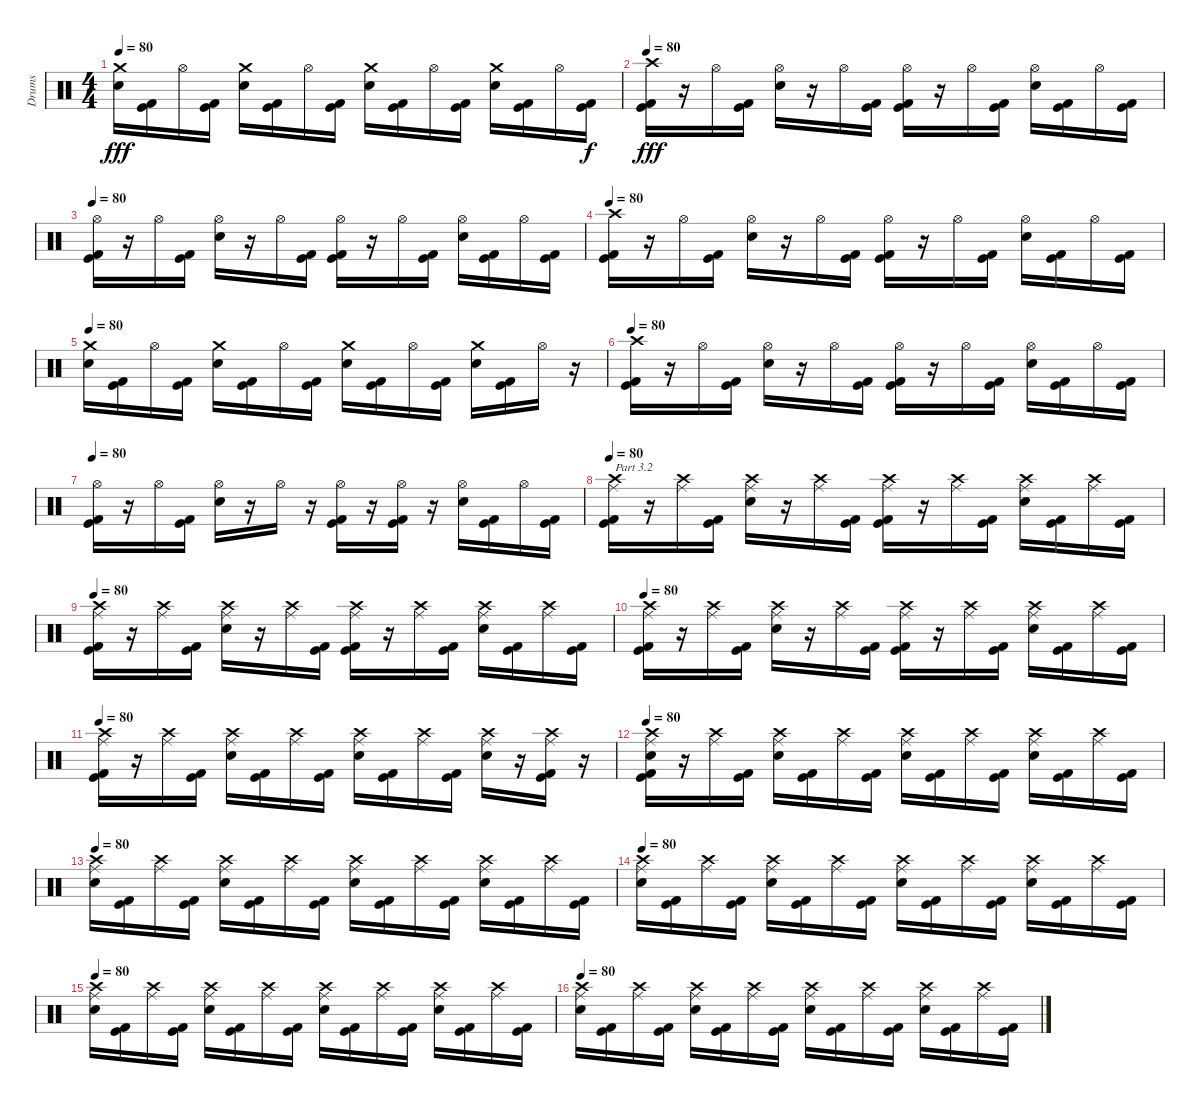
\track ("Drums" "Drums") {instrument percussion}
\staff {score}
\articulation defaults
\ts (4 4)
\tempo 80
\clef neutral
\ks c
("Electric Snare (hit)" "Crash medium (hit)").16{dy fff} ("Kick (hit)" "Kick (hit) 2").16 "Hi-Hat (open)".16 ("Kick (hit)" "Kick (hit) 2").16 ("Electric Snare (hit)" "Crash medium (hit)").16 ("Kick (hit)" "Kick (hit) 2").16 "Hi-Hat (open)".16 ("Kick (hit)" "Kick (hit) 2").16 ("Electric Snare (hit)" "Crash medium (hit)").16 ("Kick (hit)" "Kick (hit) 2").16 "Hi-Hat (open)".16 ("Kick (hit)" "Kick (hit) 2").16 ("Electric Snare (hit)" "Crash medium (hit)").16 ("Kick (hit)" "Kick (hit) 2").16 "Hi-Hat (open)".16 ("Kick (hit)" "Kick (hit) 2").16{dy f} |
\tempo 80
("Kick (hit)" "Kick (hit) 2" "Crash high (hit)").16{dy fff} r.16 "Hi-Hat (open)".16 ("Kick (hit)" "Kick (hit) 2").16 ("Electric Snare (hit)" "Hi-Hat (open)").16 r.16 "Hi-Hat (open)".16 ("Kick (hit)" "Kick (hit) 2").16 ("Kick (hit)" "Kick (hit) 2" "Hi-Hat (open)").16 r.16 "Hi-Hat (open)".16 ("Kick (hit)" "Kick (hit) 2").16 ("Electric Snare (hit)" "Hi-Hat (open)").16 ("Kick (hit)" "Kick (hit) 2").16 "Hi-Hat (open)".16 ("Kick (hit)" "Kick (hit) 2").16 |
\tempo 80
("Kick (hit)" "Kick (hit) 2" "Hi-Hat (open)").16 r.16 "Hi-Hat (open)".16 ("Kick (hit)" "Kick (hit) 2").16 ("Electric Snare (hit)" "Hi-Hat (open)").16 r.16 "Hi-Hat (open)".16 ("Kick (hit)" "Kick (hit) 2").16 ("Kick (hit)" "Kick (hit) 2" "Hi-Hat (open)").16 r.16 "Hi-Hat (open)".16 ("Kick (hit)" "Kick (hit) 2").16 ("Electric Snare (hit)" "Hi-Hat (open)").16 ("Kick (hit)" "Kick (hit) 2").16 "Hi-Hat (open)".16 ("Kick (hit)" "Kick (hit) 2").16 |
\tempo 80
("Kick (hit)" "Kick (hit) 2" "Crash high (hit)").16 r.16 "Hi-Hat (open)".16 ("Kick (hit)" "Kick (hit) 2").16 ("Electric Snare (hit)" "Hi-Hat (open)").16 r.16 "Hi-Hat (open)".16 ("Kick (hit)" "Kick (hit) 2").16 ("Kick (hit)" "Kick (hit) 2" "Hi-Hat (open)").16 r.16 "Hi-Hat (open)".16 ("Kick (hit)" "Kick (hit) 2").16 ("Electric Snare (hit)" "Hi-Hat (open)").16 ("Kick (hit)" "Kick (hit) 2").16 "Hi-Hat (open)".16 ("Kick (hit)" "Kick (hit) 2").16 |
\tempo 80
("Electric Snare (hit)" "Crash medium (hit)").16 ("Kick (hit)" "Kick (hit) 2").16 "Hi-Hat (open)".16 ("Kick (hit)" "Kick (hit) 2").16 ("Electric Snare (hit)" "Crash medium (hit)").16 ("Kick (hit)" "Kick (hit) 2").16 "Hi-Hat (open)".16 ("Kick (hit)" "Kick (hit) 2").16 ("Electric Snare (hit)" "Crash medium (hit)").16 ("Kick (hit)" "Kick (hit) 2").16 "Hi-Hat (open)".16 ("Kick (hit)" "Kick (hit) 2").16 ("Electric Snare (hit)" "Crash medium (hit)").16 ("Kick (hit)" "Kick (hit) 2").16 "Hi-Hat (open)".16 r.16 |
\tempo 80
("Kick (hit)" "Kick (hit) 2" "Crash high (hit)").16 r.16 "Hi-Hat (open)".16 ("Kick (hit)" "Kick (hit) 2").16 ("Electric Snare (hit)" "Hi-Hat (open)").16 r.16 "Hi-Hat (open)".16 ("Kick (hit)" "Kick (hit) 2").16 ("Kick (hit)" "Kick (hit) 2" "Hi-Hat (open)").16 r.16 "Hi-Hat (open)".16 ("Kick (hit)" "Kick (hit) 2").16 ("Electric Snare (hit)" "Hi-Hat (open)").16 ("Kick (hit)" "Kick (hit) 2").16 "Hi-Hat (open)".16 ("Kick (hit)" "Kick (hit) 2").16 |
\tempo 80
("Kick (hit)" "Kick (hit) 2" "Hi-Hat (open)").16 r.16 "Hi-Hat (open)".16 ("Kick (hit)" "Kick (hit) 2").16 ("Electric Snare (hit)" "Hi-Hat (open)").16 r.16 "Hi-Hat (open)".16 r.16 ("Kick (hit)" "Kick (hit) 2" "Hi-Hat (open)").16 r.16 ("Kick (hit)" "Kick (hit) 2" "Hi-Hat (open)").16 r.16 ("Electric Snare (hit)" "Hi-Hat (open)").16 ("Kick (hit)" "Kick (hit) 2").16 "Hi-Hat (open)".16 ("Kick (hit)" "Kick (hit) 2").16 |
\tempo 80
("Kick (hit)" "Kick (hit) 2" "Crash high (hit)" "Ride (middle)").16{txt "Part 3.2"} r.16 ("Crash high (hit)" "Ride (middle)").16 ("Kick (hit)" "Kick (hit) 2").16 ("Electric Snare (hit)" "Crash high (hit)" "Ride (middle)").16 r.16 ("Crash high (hit)" "Ride (middle)").16 ("Kick (hit)" "Kick (hit) 2").16 ("Kick (hit)" "Kick (hit) 2" "Crash high (hit)" "Ride (middle)").16 r.16 ("Crash high (hit)" "Ride (middle)").16 ("Kick (hit)" "Kick (hit) 2").16 ("Electric Snare (hit)" "Crash high (hit)" "Ride (middle)").16 ("Kick (hit)" "Kick (hit) 2").16 ("Crash high (hit)" "Ride (middle)").16 ("Kick (hit)" "Kick (hit) 2").16 |
\tempo 80
("Kick (hit)" "Kick (hit) 2" "Crash high (hit)" "Ride (middle)").16 r.16 ("Crash high (hit)" "Ride (middle)").16 ("Kick (hit)" "Kick (hit) 2").16 ("Electric Snare (hit)" "Crash high (hit)" "Ride (middle)").16 r.16 ("Crash high (hit)" "Ride (middle)").16 ("Kick (hit)" "Kick (hit) 2").16 ("Kick (hit)" "Kick (hit) 2" "Crash high (hit)" "Ride (middle)").16 r.16 ("Crash high (hit)" "Ride (middle)").16 ("Kick (hit)" "Kick (hit) 2").16 ("Electric Snare (hit)" "Crash high (hit)" "Ride (middle)").16 ("Kick (hit)" "Kick (hit) 2").16 ("Crash high (hit)" "Ride (middle)").16 ("Kick (hit)" "Kick (hit) 2").16 |
\tempo 80
("Kick (hit)" "Kick (hit) 2" "Crash high (hit)" "Ride (middle)").16 r.16 ("Crash high (hit)" "Ride (middle)").16 ("Kick (hit)" "Kick (hit) 2").16 ("Electric Snare (hit)" "Crash high (hit)" "Ride (middle)").16 r.16 ("Crash high (hit)" "Ride (middle)").16 ("Kick (hit)" "Kick (hit) 2").16 ("Kick (hit)" "Kick (hit) 2" "Crash high (hit)" "Ride (middle)").16 r.16 ("Crash high (hit)" "Ride (middle)").16 ("Kick (hit)" "Kick (hit) 2").16 ("Electric Snare (hit)" "Crash high (hit)" "Ride (middle)").16 ("Kick (hit)" "Kick (hit) 2").16 ("Crash high (hit)" "Ride (middle)").16 ("Kick (hit)" "Kick (hit) 2").16 |
\tempo 80
("Kick (hit)" "Kick (hit) 2" "Crash high (hit)" "Ride (middle)").16 r.16 ("Crash high (hit)" "Ride (middle)").16 ("Kick (hit)" "Kick (hit) 2").16 ("Electric Snare (hit)" "Crash high (hit)" "Ride (middle)").16 ("Kick (hit)" "Kick (hit) 2").16 ("Crash high (hit)" "Ride (middle)").16 ("Kick (hit)" "Kick (hit) 2").16 ("Electric Snare (hit)" "Crash high (hit)" "Ride (middle)").16 ("Kick (hit)" "Kick (hit) 2").16 ("Crash high (hit)" "Ride (middle)").16 ("Kick (hit)" "Kick (hit) 2").16 ("Electric Snare (hit)" "Crash high (hit)" "Ride (middle)").16 r.16 ("Kick (hit)" "Kick (hit) 2" "Crash high (hit)" "Ride (middle)").16 r.16 |
\tempo 80
("Electric Snare (hit)" "Kick (hit)" "Kick (hit) 2" "Crash high (hit)" "Ride (middle)").16 r.16 ("Crash high (hit)" "Ride (middle)").16 ("Kick (hit)" "Kick (hit) 2").16 ("Electric Snare (hit)" "Crash high (hit)" "Ride (middle)").16 ("Kick (hit)" "Kick (hit) 2").16 ("Crash high (hit)" "Ride (middle)").16 ("Kick (hit)" "Kick (hit) 2").16 ("Electric Snare (hit)" "Crash high (hit)" "Ride (middle)").16 ("Kick (hit)" "Kick (hit) 2").16 ("Crash high (hit)" "Ride (middle)").16 ("Kick (hit)" "Kick (hit) 2").16 ("Electric Snare (hit)" "Crash high (hit)" "Ride (middle)").16 ("Kick (hit)" "Kick (hit) 2").16 ("Crash high (hit)" "Ride (middle)").16 ("Kick (hit)" "Kick (hit) 2").16 |
\tempo 80
("Electric Snare (hit)" "Crash high (hit)" "Ride (middle)").16 ("Kick (hit)" "Kick (hit) 2").16 ("Crash high (hit)" "Ride (middle)").16 ("Kick (hit)" "Kick (hit) 2").16 ("Electric Snare (hit)" "Crash high (hit)" "Ride (middle)").16 ("Kick (hit)" "Kick (hit) 2").16 ("Crash high (hit)" "Ride (middle)").16 ("Kick (hit)" "Kick (hit) 2").16 ("Electric Snare (hit)" "Crash high (hit)" "Ride (middle)").16 ("Kick (hit)" "Kick (hit) 2").16 ("Crash high (hit)" "Ride (middle)").16 ("Kick (hit)" "Kick (hit) 2").16 ("Electric Snare (hit)" "Crash high (hit)" "Ride (middle)").16 ("Kick (hit)" "Kick (hit) 2").16 ("Crash high (hit)" "Ride (middle)").16 ("Kick (hit)" "Kick (hit) 2").16 |
\tempo 80
("Electric Snare (hit)" "Crash high (hit)" "Ride (middle)").16 ("Kick (hit)" "Kick (hit) 2").16 ("Crash high (hit)" "Ride (middle)").16 ("Kick (hit)" "Kick (hit) 2").16 ("Electric Snare (hit)" "Crash high (hit)" "Ride (middle)").16 ("Kick (hit)" "Kick (hit) 2").16 ("Crash high (hit)" "Ride (middle)").16 ("Kick (hit)" "Kick (hit) 2").16 ("Electric Snare (hit)" "Crash high (hit)" "Ride (middle)").16 ("Kick (hit)" "Kick (hit) 2").16 ("Crash high (hit)" "Ride (middle)").16 ("Kick (hit)" "Kick (hit) 2").16 ("Electric Snare (hit)" "Crash high (hit)" "Ride (middle)").16 ("Kick (hit)" "Kick (hit) 2").16 ("Crash high (hit)" "Ride (middle)").16 ("Kick (hit)" "Kick (hit) 2").16 |
\tempo 80
("Electric Snare (hit)" "Crash high (hit)" "Ride (middle)").16 ("Kick (hit)" "Kick (hit) 2").16 ("Crash high (hit)" "Ride (middle)").16 ("Kick (hit)" "Kick (hit) 2").16 ("Electric Snare (hit)" "Crash high (hit)" "Ride (middle)").16 ("Kick (hit)" "Kick (hit) 2").16 ("Crash high (hit)" "Ride (middle)").16 ("Kick (hit)" "Kick (hit) 2").16 ("Electric Snare (hit)" "Crash high (hit)" "Ride (middle)").16 ("Kick (hit)" "Kick (hit) 2").16 ("Crash high (hit)" "Ride (middle)").16 ("Kick (hit)" "Kick (hit) 2").16 ("Electric Snare (hit)" "Crash high (hit)" "Ride (middle)").16 ("Kick (hit)" "Kick (hit) 2").16 ("Crash high (hit)" "Ride (middle)").16 ("Kick (hit)" "Kick (hit) 2").16 |
\tempo 80
("Electric Snare (hit)" "Crash high (hit)" "Ride (middle)").16 ("Kick (hit)" "Kick (hit) 2").16 ("Crash high (hit)" "Ride (middle)").16 ("Kick (hit)" "Kick (hit) 2").16 ("Electric Snare (hit)" "Crash high (hit)" "Ride (middle)").16 ("Kick (hit)" "Kick (hit) 2").16 ("Crash high (hit)" "Ride (middle)").16 ("Kick (hit)" "Kick (hit) 2").16 ("Electric Snare (hit)" "Crash high (hit)" "Ride (middle)").16 ("Kick (hit)" "Kick (hit) 2").16 ("Crash high (hit)" "Ride (middle)").16 ("Kick (hit)" "Kick (hit) 2").16 ("Electric Snare (hit)" "Crash high (hit)" "Ride (middle)").16 ("Kick (hit)" "Kick (hit) 2").16 ("Crash high (hit)" "Ride (middle)").16 ("Kick (hit)" "Kick (hit) 2").16
